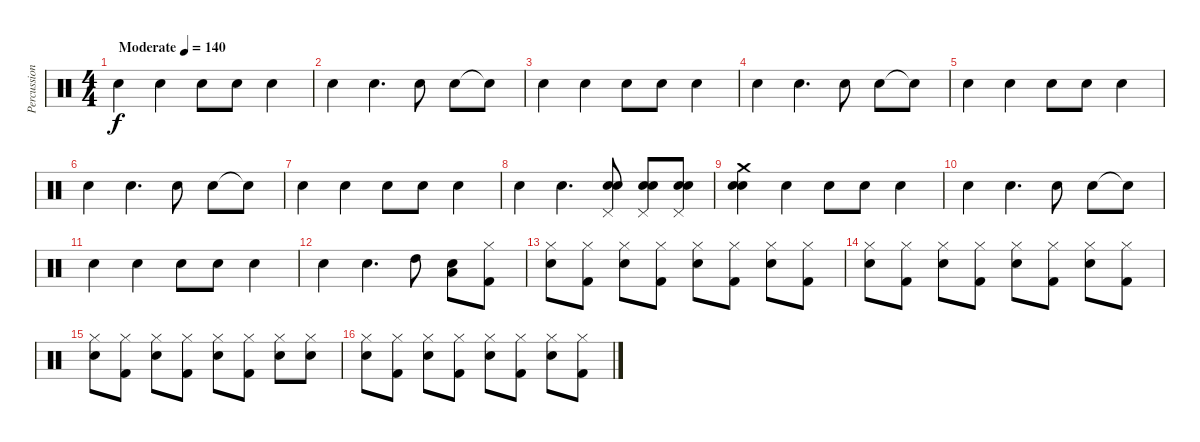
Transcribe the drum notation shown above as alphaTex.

\track ("Percussion" "Percussion") {instrument percussion}
\staff {score}
\articulation defaults
\ts (4 4)
\tempo (140 "Moderate")
\clef neutral
\ks c "Hand Clap (hit)".4{dy f} "Hand Clap (hit)".4 "Hand Clap (hit)".8 "Hand Clap (hit)".8 "Hand Clap (hit)".4
|
"Hand Clap (hit)".4 "Hand Clap (hit)".4{d} "Hand Clap (hit)".8 "Hand Clap (hit)".8 "Snare (hit)"{t}.8 |
"Hand Clap (hit)".4 "Hand Clap (hit)".4 "Hand Clap (hit)".8 "Hand Clap (hit)".8 "Hand Clap (hit)".4 |
"Hand Clap (hit)".4 "Hand Clap (hit)".4{d} "Hand Clap (hit)".8 "Hand Clap (hit)".8 "Snare (hit)"{t}.8 |
"Hand Clap (hit)".4 "Hand Clap (hit)".4 "Hand Clap (hit)".8 "Hand Clap (hit)".8 "Hand Clap (hit)".4 |
"Hand Clap (hit)".4 "Hand Clap (hit)".4{d} "Hand Clap (hit)".8 "Hand Clap (hit)".8 "Snare (hit)"{t}.8 |
"Hand Clap (hit)".4 "Hand Clap (hit)".4 "Hand Clap (hit)".8 "Hand Clap (hit)".8 "Hand Clap (hit)".4 |
"Hand Clap (hit)".4 "Hand Clap (hit)".4{d} ("Hand Clap (hit)" "Electric Snare (hit)" "Pedal Hi-Hat (hit)").8 ("Electric Snare (hit)" "Hand Clap (hit)" "Pedal Hi-Hat (hit)").8 ("Electric Snare (hit)" "Hand Clap (hit)" "Pedal Hi-Hat (hit)").8 |
("Hand Clap (hit)" "Electric Snare (hit)" "Crash medium (hit)").4 "Hand Clap (hit)".4 "Hand Clap (hit)".8 "Hand Clap (hit)".8 "Hand Clap (hit)".4 |
"Hand Clap (hit)".4 "Hand Clap (hit)".4{d} "Hand Clap (hit)".8 "Hand Clap (hit)".8 "Snare (hit)"{t}.8 |
"Hand Clap (hit)".4 "Hand Clap (hit)".4 "Hand Clap (hit)".8 "Hand Clap (hit)".8 "Hand Clap (hit)".4 |
"Hand Clap (hit)".4 "Hand Clap (hit)".4{d} "High Tom (hit)".8 ("Low Tom (hit)" "Snare (hit)").8 ("Hi-Hat (closed)" "Kick (hit) 2").8 |
("Hi-Hat (closed)" "Electric Snare (hit)").8 ("Hi-Hat (closed)" "Kick (hit) 2").8 ("Hi-Hat (closed)" "Electric Snare (hit)").8 ("Hi-Hat (closed)" "Kick (hit) 2").8 ("Hi-Hat (closed)" "Electric Snare (hit)").8 ("Hi-Hat (closed)" "Kick (hit) 2").8 ("Hi-Hat (closed)" "Electric Snare (hit)").8 ("Hi-Hat (closed)" "Kick (hit) 2").8 |
("Hi-Hat (closed)" "Electric Snare (hit)").8 ("Hi-Hat (closed)" "Kick (hit) 2").8 ("Hi-Hat (closed)" "Electric Snare (hit)").8 ("Hi-Hat (closed)" "Kick (hit) 2").8 ("Hi-Hat (closed)" "Electric Snare (hit)").8 ("Hi-Hat (closed)" "Kick (hit) 2").8 ("Hi-Hat (closed)" "Electric Snare (hit)").8 ("Hi-Hat (closed)" "Kick (hit) 2").8 |
("Hi-Hat (closed)" "Electric Snare (hit)").8 ("Hi-Hat (closed)" "Kick (hit) 2").8 ("Hi-Hat (closed)" "Electric Snare (hit)").8 ("Hi-Hat (closed)" "Kick (hit) 2").8 ("Hi-Hat (closed)" "Electric Snare (hit)").8 ("Hi-Hat (closed)" "Kick (hit) 2").8 ("Hi-Hat (closed)" "Electric Snare (hit)").8 ("Hi-Hat (closed)" "Electric Snare (hit)").8 |
("Hi-Hat (closed)" "Electric Snare (hit)").8 ("Hi-Hat (closed)" "Kick (hit) 2").8 ("Hi-Hat (closed)" "Electric Snare (hit)").8 ("Hi-Hat (closed)" "Kick (hit) 2").8 ("Hi-Hat (closed)" "Electric Snare (hit)").8 ("Hi-Hat (closed)" "Kick (hit) 2").8 ("Hi-Hat (closed)" "Electric Snare (hit)").8 ("Hi-Hat (closed)" "Kick (hit) 2").8
